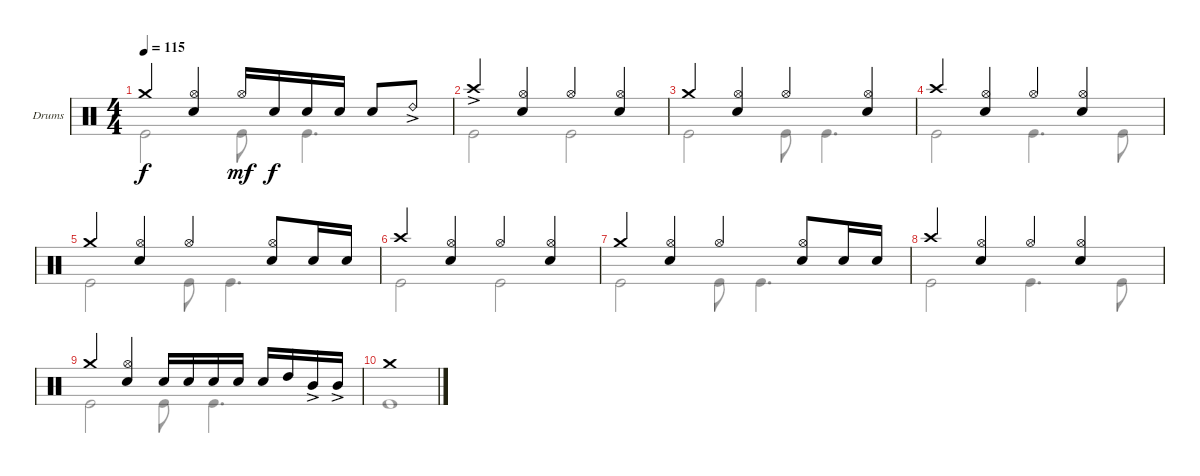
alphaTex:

\defaultSystemsLayout 4
\bracketExtendMode groupsimilarinstruments
\firstSystemTrackNameOrientation horizontal
\otherSystemsTrackNameOrientation horizontal
\track ("Drumkit" "Drums") {instrument percussion}
\staff {score}
\articulation defaults
\voice
\ts (4 4)
\tempo 115
\clef neutral
\ks c "Crash medium (hit)".4{dy f}
("Hi-Hat (open)" "Snare (hit) 2").4 "Hi-Hat (open)".16{dy mf} "Snare (hit) 2".16{dy f} "Snare (hit) 2".16 "Snare (hit) 2".16 "Snare (hit) 2".8 "Ride (bell) 2"{ac}.8 |
"Crash high (hit)"{ac}.4 ("Hi-Hat (open)" "Snare (hit) 2").4 "Hi-Hat (open)".4 ("Hi-Hat (open)" "Snare (hit) 2").4 |
"Crash medium (hit)".4 ("Hi-Hat (open)" "Snare (hit) 2").4 "Hi-Hat (open)".4 ("Hi-Hat (open)" "Snare (hit) 2").4 |
"Crash high (hit)".4 ("Hi-Hat (open)" "Snare (hit) 2").4 "Hi-Hat (open)".4 ("Hi-Hat (open)" "Snare (hit) 2").4 |
"Crash medium (hit)".4 ("Hi-Hat (open)" "Snare (hit) 2").4 "Hi-Hat (open)".4 ("Hi-Hat (open)" "Snare (hit) 2").8 "Snare (hit) 2".16 "Snare (hit) 2".16 |
"Crash high (hit)".4 ("Hi-Hat (open)" "Snare (hit) 2").4 "Hi-Hat (open)".4 ("Hi-Hat (open)" "Snare (hit) 2").4 |
"Crash medium (hit)".4 ("Hi-Hat (open)" "Snare (hit) 2").4 "Hi-Hat (open)".4 ("Hi-Hat (open)" "Snare (hit) 2").8 "Snare (hit) 2".16 "Snare (hit) 2".16 |
"Crash high (hit)".4 ("Hi-Hat (open)" "Snare (hit) 2").4 "Hi-Hat (open)".4 ("Hi-Hat (open)" "Snare (hit) 2").4 |
"Crash medium (hit)".4 ("Hi-Hat (open)" "Snare (hit) 2").4 "Snare (hit) 2".16 "Snare (hit) 2".16 "Snare (hit) 2".16 "Snare (hit) 2".16 "Snare (hit) 2".16 "High Tom (hit)".16 "Mid Tom (hit)"{ac}.16 "Mid Tom (hit)"{ac}.16 |
"Crash medium (hit)".1
\voice
\clef neutral
\ottava regular
\simile none
\ks c "Kick (hit)".2{dy f} "Kick (hit)".8 "Kick (hit)".4{d}
|
"Kick (hit)".2 "Kick (hit)".2 |
"Kick (hit)".2 "Kick (hit)".8 "Kick (hit)".4{d} |
"Kick (hit)".2 "Kick (hit)".4{d} "Kick (hit)".8 |
"Kick (hit)".2 "Kick (hit)".8 "Kick (hit)".4{d} |
"Kick (hit)".2 "Kick (hit)".2 |
"Kick (hit)".2 "Kick (hit)".8 "Kick (hit)".4{d} |
"Kick (hit)".2 "Kick (hit)".4{d} "Kick (hit)".8 |
"Kick (hit)".2 "Kick (hit)".8 "Kick (hit)".4{d} |
"Kick (hit)".1
